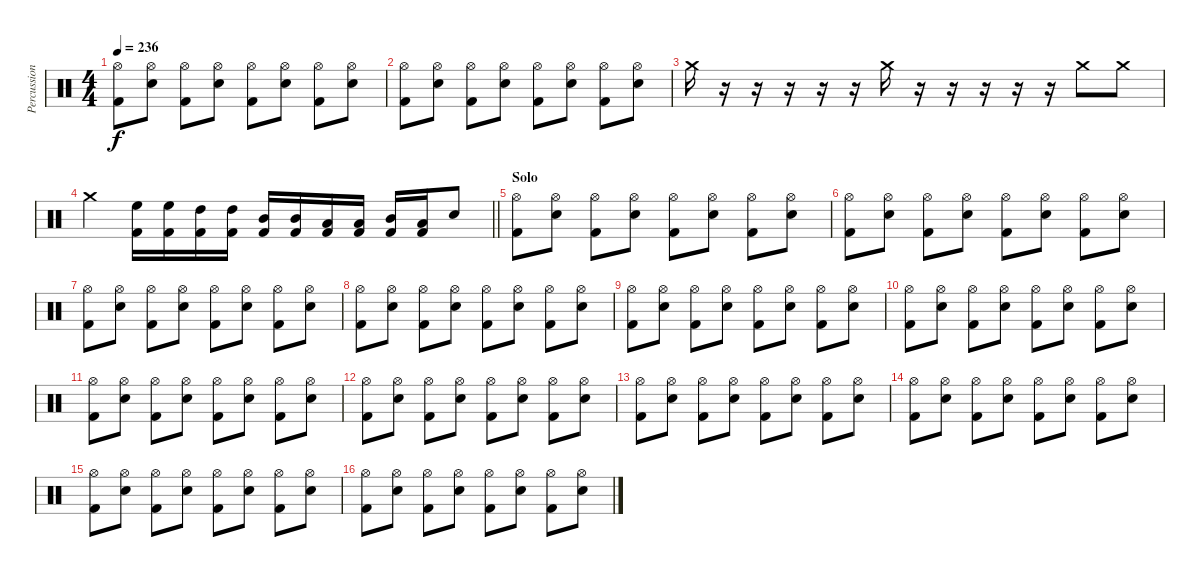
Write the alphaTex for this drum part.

\track ("Percussion" "Percussion") {instrument percussion}
\staff {score}
\articulation defaults
\ts (4 4)
\tempo 236
\clef neutral
\ks c
("Hi-Hat (open)" "Kick (hit) 2").8{dy f} ("Hi-Hat (open)" "Snare (hit) 2").8 ("Hi-Hat (open)" "Kick (hit) 2").8 ("Hi-Hat (open)" "Snare (hit) 2").8 ("Hi-Hat (open)" "Kick (hit) 2").8 ("Hi-Hat (open)" "Snare (hit) 2").8 ("Hi-Hat (open)" "Kick (hit) 2").8 ("Hi-Hat (open)" "Snare (hit) 2").8 |
("Hi-Hat (open)" "Kick (hit) 2").8 ("Hi-Hat (open)" "Snare (hit) 2").8 ("Hi-Hat (open)" "Kick (hit) 2").8 ("Hi-Hat (open)" "Snare (hit) 2").8 ("Hi-Hat (open)" "Kick (hit) 2").8 ("Hi-Hat (open)" "Snare (hit) 2").8 ("Hi-Hat (open)" "Kick (hit) 2").8 ("Hi-Hat (open)" "Snare (hit) 2").8 |
"Crash medium (hit)".16 r.16 r.16 r.16 r.16 r.16 "Crash medium (hit)".16 r.16 r.16 r.16 r.16 r.16 "Crash medium (hit)".8 "Crash medium (hit)".8 |
\barLineRight lightlight "Crash medium (hit)".4
("High Floor Tom (hit)" "Kick (hit) 2").16 ("High Floor Tom (hit)" "Kick (hit) 2").16 ("High Tom (hit)" "Kick (hit) 2").16 ("High Tom (hit)" "Kick (hit) 2").16 ("Mid Tom (hit)" "Kick (hit) 2").16 ("Mid Tom (hit)" "Kick (hit) 2").16 ("Low Tom (hit)" "Kick (hit) 2").16 ("Low Tom (hit)" "Kick (hit) 2").16 ("Mid Tom (hit)" "Kick (hit) 2").16 ("Low Tom (hit)" "Kick (hit) 2").16 "Snare (hit) 2".8 |
\section ("" "Solo")
("Hi-Hat (open)" "Kick (hit) 2").8 ("Hi-Hat (open)" "Snare (hit) 2").8 ("Hi-Hat (open)" "Kick (hit) 2").8 ("Hi-Hat (open)" "Snare (hit) 2").8 ("Hi-Hat (open)" "Kick (hit) 2").8 ("Hi-Hat (open)" "Snare (hit) 2").8 ("Hi-Hat (open)" "Kick (hit) 2").8 ("Hi-Hat (open)" "Snare (hit) 2").8 |
("Hi-Hat (open)" "Kick (hit) 2").8 ("Hi-Hat (open)" "Snare (hit) 2").8 ("Hi-Hat (open)" "Kick (hit) 2").8 ("Hi-Hat (open)" "Snare (hit) 2").8 ("Hi-Hat (open)" "Kick (hit) 2").8 ("Hi-Hat (open)" "Snare (hit) 2").8 ("Hi-Hat (open)" "Kick (hit) 2").8 ("Hi-Hat (open)" "Snare (hit) 2").8 |
("Hi-Hat (open)" "Kick (hit) 2").8 ("Hi-Hat (open)" "Snare (hit) 2").8 ("Hi-Hat (open)" "Kick (hit) 2").8 ("Hi-Hat (open)" "Snare (hit) 2").8 ("Hi-Hat (open)" "Kick (hit) 2").8 ("Hi-Hat (open)" "Snare (hit) 2").8 ("Hi-Hat (open)" "Kick (hit) 2").8 ("Hi-Hat (open)" "Snare (hit) 2").8 |
("Hi-Hat (open)" "Kick (hit) 2").8 ("Hi-Hat (open)" "Snare (hit) 2").8 ("Hi-Hat (open)" "Kick (hit) 2").8 ("Hi-Hat (open)" "Snare (hit) 2").8 ("Hi-Hat (open)" "Kick (hit) 2").8 ("Hi-Hat (open)" "Snare (hit) 2").8 ("Hi-Hat (open)" "Kick (hit) 2").8 ("Hi-Hat (open)" "Snare (hit) 2").8 |
("Hi-Hat (open)" "Kick (hit) 2").8 ("Hi-Hat (open)" "Snare (hit) 2").8 ("Hi-Hat (open)" "Kick (hit) 2").8 ("Hi-Hat (open)" "Snare (hit) 2").8 ("Hi-Hat (open)" "Kick (hit) 2").8 ("Hi-Hat (open)" "Snare (hit) 2").8 ("Hi-Hat (open)" "Kick (hit) 2").8 ("Hi-Hat (open)" "Snare (hit) 2").8 |
("Hi-Hat (open)" "Kick (hit) 2").8 ("Hi-Hat (open)" "Snare (hit) 2").8 ("Hi-Hat (open)" "Kick (hit) 2").8 ("Hi-Hat (open)" "Snare (hit) 2").8 ("Hi-Hat (open)" "Kick (hit) 2").8 ("Hi-Hat (open)" "Snare (hit) 2").8 ("Hi-Hat (open)" "Kick (hit) 2").8 ("Hi-Hat (open)" "Snare (hit) 2").8 |
("Hi-Hat (open)" "Kick (hit) 2").8 ("Hi-Hat (open)" "Snare (hit) 2").8 ("Hi-Hat (open)" "Kick (hit) 2").8 ("Hi-Hat (open)" "Snare (hit) 2").8 ("Hi-Hat (open)" "Kick (hit) 2").8 ("Hi-Hat (open)" "Snare (hit) 2").8 ("Hi-Hat (open)" "Kick (hit) 2").8 ("Hi-Hat (open)" "Snare (hit) 2").8 |
("Hi-Hat (open)" "Kick (hit) 2").8 ("Hi-Hat (open)" "Snare (hit) 2").8 ("Hi-Hat (open)" "Kick (hit) 2").8 ("Hi-Hat (open)" "Snare (hit) 2").8 ("Hi-Hat (open)" "Kick (hit) 2").8 ("Hi-Hat (open)" "Snare (hit) 2").8 ("Hi-Hat (open)" "Kick (hit) 2").8 ("Hi-Hat (open)" "Snare (hit) 2").8 |
("Hi-Hat (open)" "Kick (hit) 2").8 ("Hi-Hat (open)" "Snare (hit) 2").8 ("Hi-Hat (open)" "Kick (hit) 2").8 ("Hi-Hat (open)" "Snare (hit) 2").8 ("Hi-Hat (open)" "Kick (hit) 2").8 ("Hi-Hat (open)" "Snare (hit) 2").8 ("Hi-Hat (open)" "Kick (hit) 2").8 ("Hi-Hat (open)" "Snare (hit) 2").8 |
("Hi-Hat (open)" "Kick (hit) 2").8 ("Hi-Hat (open)" "Snare (hit) 2").8 ("Hi-Hat (open)" "Kick (hit) 2").8 ("Hi-Hat (open)" "Snare (hit) 2").8 ("Hi-Hat (open)" "Kick (hit) 2").8 ("Hi-Hat (open)" "Snare (hit) 2").8 ("Hi-Hat (open)" "Kick (hit) 2").8 ("Hi-Hat (open)" "Snare (hit) 2").8 |
("Hi-Hat (open)" "Kick (hit) 2").8 ("Hi-Hat (open)" "Snare (hit) 2").8 ("Hi-Hat (open)" "Kick (hit) 2").8 ("Hi-Hat (open)" "Snare (hit) 2").8 ("Hi-Hat (open)" "Kick (hit) 2").8 ("Hi-Hat (open)" "Snare (hit) 2").8 ("Hi-Hat (open)" "Kick (hit) 2").8 ("Hi-Hat (open)" "Snare (hit) 2").8 |
("Hi-Hat (open)" "Kick (hit) 2").8 ("Hi-Hat (open)" "Snare (hit) 2").8 ("Hi-Hat (open)" "Kick (hit) 2").8 ("Hi-Hat (open)" "Snare (hit) 2").8 ("Hi-Hat (open)" "Kick (hit) 2").8 ("Hi-Hat (open)" "Snare (hit) 2").8 ("Hi-Hat (open)" "Kick (hit) 2").8 ("Hi-Hat (open)" "Snare (hit) 2").8
